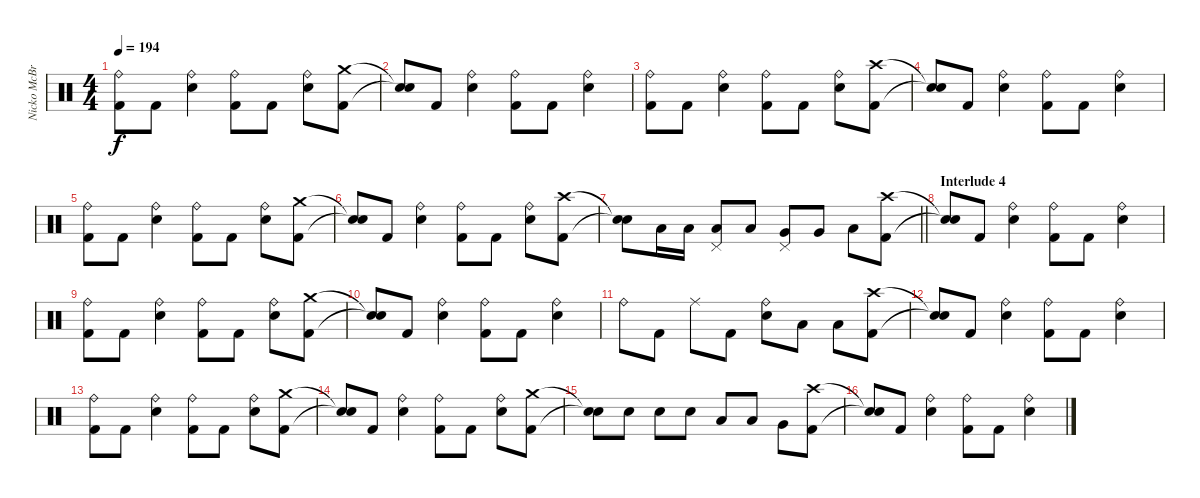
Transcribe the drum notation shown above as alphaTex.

\track ("Nicko McBrain" "Nicko McBr") {instrument percussion}
\staff {score}
\articulation defaults
\ts (4 4)
\tempo 194
\clef neutral
\ks c
("Ride (bell)" "Kick (hit) 2").8{dy f} "Kick (hit) 2".8 ("Ride (bell)" "Electric Snare (hit)").4 ("Ride (bell)" "Kick (hit) 2").8 "Kick (hit) 2".8 ("Ride (bell)" "Electric Snare (hit)").8 ("Crash medium (hit)" "Kick (hit) 2").8 |
("Snare (hit)"{t} "Snare (hit)"{t}).8 "Kick (hit) 2".8 ("Ride (bell)" "Electric Snare (hit)").4 ("Ride (bell)" "Kick (hit) 2").8 "Kick (hit) 2".8 ("Ride (bell)" "Electric Snare (hit)").4 |
("Ride (bell)" "Kick (hit) 2").8 "Kick (hit) 2".8 ("Ride (bell)" "Electric Snare (hit)").4 ("Ride (bell)" "Kick (hit) 2").8 "Kick (hit) 2".8 ("Ride (bell)" "Electric Snare (hit)").8 ("Crash high (hit)" "Kick (hit) 2").8 |
("Snare (hit)"{t} "Snare (hit)"{t}).8 "Kick (hit) 2".8 ("Ride (bell)" "Electric Snare (hit)").4 ("Ride (bell)" "Kick (hit) 2").8 "Kick (hit) 2".8 ("Ride (bell)" "Electric Snare (hit)").4 |
("Ride (bell)" "Kick (hit) 2").8 "Kick (hit) 2".8 ("Ride (bell)" "Electric Snare (hit)").4 ("Ride (bell)" "Kick (hit) 2").8 "Kick (hit) 2".8 ("Ride (bell)" "Electric Snare (hit)").8 ("Crash medium (hit)" "Kick (hit) 2").8 |
("Snare (hit)"{t} "Snare (hit)"{t}).8 "Kick (hit) 2".8 ("Ride (bell)" "Electric Snare (hit)").4 ("Ride (bell)" "Kick (hit) 2").8 "Kick (hit) 2".8 ("Ride (bell)" "Electric Snare (hit)").8 ("Crash high (hit)" "Kick (hit) 2").8 |
\barLineRight lightlight
("Snare (hit)"{t} "Snare (hit)"{t}).8 "Low Tom (hit)".16 "Low Tom (hit)".16 ("Low Tom (hit)" "Pedal Hi-Hat (hit)").8 "Low Tom (hit)".8 ("Very Low Tom (hit)" "Pedal Hi-Hat (hit)").8 "Very Low Tom (hit)".8 "Low Floor Tom (hit)".8 ("Crash high (hit)" "Kick (hit) 2").8 |
\section ("" "Interlude 4")
("Snare (hit)"{t} "Snare (hit)"{t}).8 "Kick (hit) 2".8 ("Ride (bell)" "Electric Snare (hit)").4 ("Ride (bell)" "Kick (hit) 2").8 "Kick (hit) 2".8 ("Ride (bell)" "Electric Snare (hit)").4 |
("Ride (bell)" "Kick (hit) 2").8 "Kick (hit) 2".8 ("Ride (bell)" "Electric Snare (hit)").4 ("Ride (bell)" "Kick (hit) 2").8 "Kick (hit) 2".8 ("Ride (bell)" "Electric Snare (hit)").8 ("Crash medium (hit)" "Kick (hit) 2").8 |
("Snare (hit)"{t} "Snare (hit)"{t}).8 "Kick (hit) 2".8 ("Ride (bell)" "Electric Snare (hit)").4 ("Ride (bell)" "Kick (hit) 2").8 "Kick (hit) 2".8 ("Ride (bell)" "Electric Snare (hit)").4 |
"Ride (bell)".8 "Kick (hit) 2".8 "Ride (middle)".8 "Kick (hit) 2".8 ("Ride (bell)" "Electric Snare (hit)").8 "Low Tom (hit)".8 "Low Tom (hit)".8 ("Crash high (hit)" "Kick (hit) 2").8 |
("Snare (hit)"{t} "Snare (hit)"{t}).8 "Kick (hit) 2".8 ("Ride (bell)" "Electric Snare (hit)").4 ("Ride (bell)" "Kick (hit) 2").8 "Kick (hit) 2".8 ("Ride (bell)" "Electric Snare (hit)").4 |
("Ride (bell)" "Kick (hit) 2").8 "Kick (hit) 2".8 ("Ride (bell)" "Electric Snare (hit)").4 ("Ride (bell)" "Kick (hit) 2").8 "Kick (hit) 2".8 ("Ride (bell)" "Electric Snare (hit)").8 ("Crash medium (hit)" "Kick (hit) 2").8 |
("Snare (hit)"{t} "Snare (hit)"{t}).8 "Kick (hit) 2".8 ("Ride (bell)" "Electric Snare (hit)").4 ("Ride (bell)" "Kick (hit) 2").8 "Kick (hit) 2".8 ("Ride (bell)" "Electric Snare (hit)").8 ("Crash medium (hit)" "Kick (hit) 2").8 |
("Snare (hit)"{t} "Snare (hit)"{t}).8 "Electric Snare (hit)".8 "Electric Snare (hit)".8 "Electric Snare (hit)".8 "Low Tom (hit)".8 "Low Tom (hit)".8 "Very Low Tom (hit)".8 ("Crash high (hit)" "Kick (hit) 2").8 |
("Snare (hit)"{t} "Snare (hit)"{t}).8 "Kick (hit) 2".8 ("Ride (bell)" "Electric Snare (hit)").4 ("Ride (bell)" "Kick (hit) 2").8 "Kick (hit) 2".8 ("Ride (bell)" "Electric Snare (hit)").4
